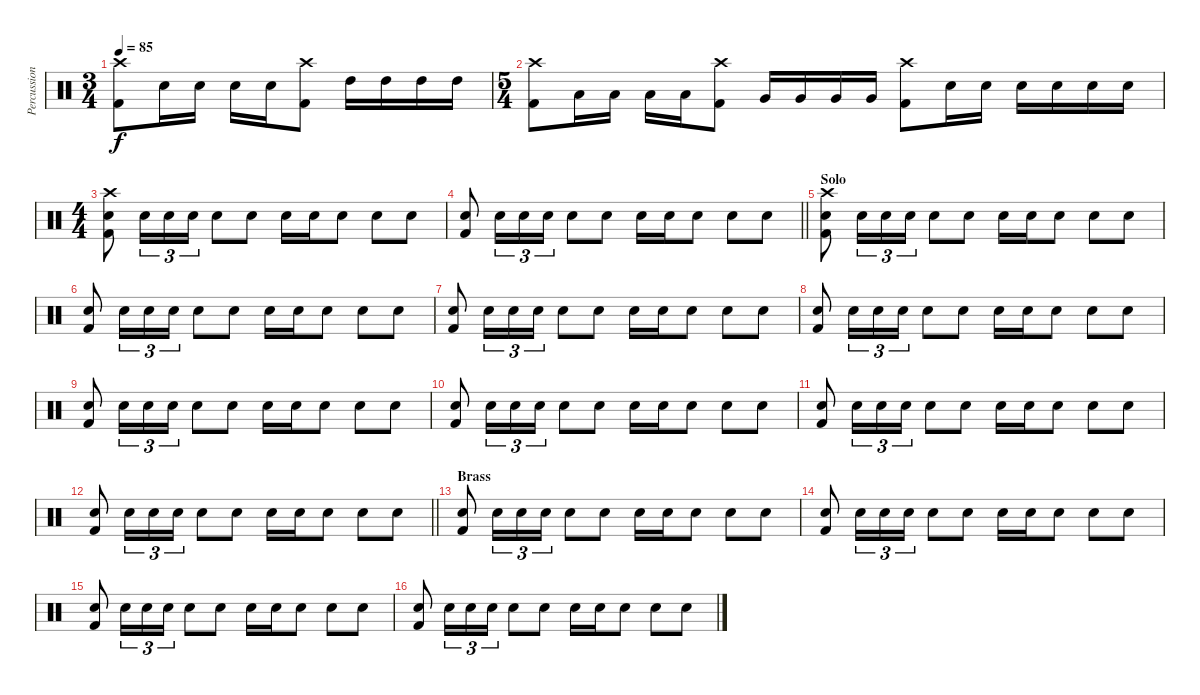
\track ("Percussion" "Percussion") {instrument percussion}
\staff {score}
\articulation defaults
\ts (3 4)
\tempo 85
\clef neutral
\ks c
("Crash high (hit)" "Kick (hit) 2").8{dy f} "Electric Snare (hit)".16 "Electric Snare (hit)".16 "Electric Snare (hit)".16 "Electric Snare (hit)".16 ("Crash high (hit)" "Kick (hit) 2").8 "High Tom (hit)".16 "High Tom (hit)".16 "High Tom (hit)".16 "High Tom (hit)".16 |
\ts (5 4)
("Crash high (hit)" "Kick (hit) 2").8 "Low Tom (hit)".16 "Low Tom (hit)".16 "Low Tom (hit)".16 "Low Tom (hit)".16 ("Crash high (hit)" "Kick (hit) 2").8 "Very Low Tom (hit)".16 "Very Low Tom (hit)".16 "Very Low Tom (hit)".16 "Very Low Tom (hit)".16 ("Crash high (hit)" "Kick (hit) 2").8 "Electric Snare (hit)".16 "Electric Snare (hit)".16 "Electric Snare (hit)".16 "Electric Snare (hit)".16 "Electric Snare (hit)".16 "Electric Snare (hit)".16 |
\ts (4 4)
("Crash high (hit)" "Electric Snare (hit)" "Kick (hit) 2").8 "Electric Snare (hit)".16{tu (3 2)} "Electric Snare (hit)".16{tu (3 2)} "Electric Snare (hit)".16{tu (3 2)} "Electric Snare (hit)".8 "Electric Snare (hit)".8 "Electric Snare (hit)".16 "Electric Snare (hit)".16 "Electric Snare (hit)".8 "Electric Snare (hit)".8 "Electric Snare (hit)".8 |
\barLineRight lightlight
("Electric Snare (hit)" "Kick (hit) 2").8 "Electric Snare (hit)".16{tu (3 2)} "Electric Snare (hit)".16{tu (3 2)} "Electric Snare (hit)".16{tu (3 2)} "Electric Snare (hit)".8 "Electric Snare (hit)".8 "Electric Snare (hit)".16 "Electric Snare (hit)".16 "Electric Snare (hit)".8 "Electric Snare (hit)".8 "Electric Snare (hit)".8 |
\section ("" "Solo")
("Crash high (hit)" "Electric Snare (hit)" "Kick (hit) 2").8 "Electric Snare (hit)".16{tu (3 2)} "Electric Snare (hit)".16{tu (3 2)} "Electric Snare (hit)".16{tu (3 2)} "Electric Snare (hit)".8 "Electric Snare (hit)".8 "Electric Snare (hit)".16 "Electric Snare (hit)".16 "Electric Snare (hit)".8 "Electric Snare (hit)".8 "Electric Snare (hit)".8 |
("Electric Snare (hit)" "Kick (hit) 2").8 "Electric Snare (hit)".16{tu (3 2)} "Electric Snare (hit)".16{tu (3 2)} "Electric Snare (hit)".16{tu (3 2)} "Electric Snare (hit)".8 "Electric Snare (hit)".8 "Electric Snare (hit)".16 "Electric Snare (hit)".16 "Electric Snare (hit)".8 "Electric Snare (hit)".8 "Electric Snare (hit)".8 |
("Electric Snare (hit)" "Kick (hit) 2").8 "Electric Snare (hit)".16{tu (3 2)} "Electric Snare (hit)".16{tu (3 2)} "Electric Snare (hit)".16{tu (3 2)} "Electric Snare (hit)".8 "Electric Snare (hit)".8 "Electric Snare (hit)".16 "Electric Snare (hit)".16 "Electric Snare (hit)".8 "Electric Snare (hit)".8 "Electric Snare (hit)".8 |
("Electric Snare (hit)" "Kick (hit) 2").8 "Electric Snare (hit)".16{tu (3 2)} "Electric Snare (hit)".16{tu (3 2)} "Electric Snare (hit)".16{tu (3 2)} "Electric Snare (hit)".8 "Electric Snare (hit)".8 "Electric Snare (hit)".16 "Electric Snare (hit)".16 "Electric Snare (hit)".8 "Electric Snare (hit)".8 "Electric Snare (hit)".8 |
("Electric Snare (hit)" "Kick (hit) 2").8 "Electric Snare (hit)".16{tu (3 2)} "Electric Snare (hit)".16{tu (3 2)} "Electric Snare (hit)".16{tu (3 2)} "Electric Snare (hit)".8 "Electric Snare (hit)".8 "Electric Snare (hit)".16 "Electric Snare (hit)".16 "Electric Snare (hit)".8 "Electric Snare (hit)".8 "Electric Snare (hit)".8 |
("Electric Snare (hit)" "Kick (hit) 2").8 "Electric Snare (hit)".16{tu (3 2)} "Electric Snare (hit)".16{tu (3 2)} "Electric Snare (hit)".16{tu (3 2)} "Electric Snare (hit)".8 "Electric Snare (hit)".8 "Electric Snare (hit)".16 "Electric Snare (hit)".16 "Electric Snare (hit)".8 "Electric Snare (hit)".8 "Electric Snare (hit)".8 |
("Electric Snare (hit)" "Kick (hit) 2").8 "Electric Snare (hit)".16{tu (3 2)} "Electric Snare (hit)".16{tu (3 2)} "Electric Snare (hit)".16{tu (3 2)} "Electric Snare (hit)".8 "Electric Snare (hit)".8 "Electric Snare (hit)".16 "Electric Snare (hit)".16 "Electric Snare (hit)".8 "Electric Snare (hit)".8 "Electric Snare (hit)".8 |
\barLineRight lightlight
("Electric Snare (hit)" "Kick (hit) 2").8 "Electric Snare (hit)".16{tu (3 2)} "Electric Snare (hit)".16{tu (3 2)} "Electric Snare (hit)".16{tu (3 2)} "Electric Snare (hit)".8 "Electric Snare (hit)".8 "Electric Snare (hit)".16 "Electric Snare (hit)".16 "Electric Snare (hit)".8 "Electric Snare (hit)".8 "Electric Snare (hit)".8 |
\section ("" "Brass")
("Electric Snare (hit)" "Kick (hit) 2").8 "Electric Snare (hit)".16{tu (3 2)} "Electric Snare (hit)".16{tu (3 2)} "Electric Snare (hit)".16{tu (3 2)} "Electric Snare (hit)".8 "Electric Snare (hit)".8 "Electric Snare (hit)".16 "Electric Snare (hit)".16 "Electric Snare (hit)".8 "Electric Snare (hit)".8 "Electric Snare (hit)".8 |
("Electric Snare (hit)" "Kick (hit) 2").8 "Electric Snare (hit)".16{tu (3 2)} "Electric Snare (hit)".16{tu (3 2)} "Electric Snare (hit)".16{tu (3 2)} "Electric Snare (hit)".8 "Electric Snare (hit)".8 "Electric Snare (hit)".16 "Electric Snare (hit)".16 "Electric Snare (hit)".8 "Electric Snare (hit)".8 "Electric Snare (hit)".8 |
("Electric Snare (hit)" "Kick (hit) 2").8 "Electric Snare (hit)".16{tu (3 2)} "Electric Snare (hit)".16{tu (3 2)} "Electric Snare (hit)".16{tu (3 2)} "Electric Snare (hit)".8 "Electric Snare (hit)".8 "Electric Snare (hit)".16 "Electric Snare (hit)".16 "Electric Snare (hit)".8 "Electric Snare (hit)".8 "Electric Snare (hit)".8 |
("Electric Snare (hit)" "Kick (hit) 2").8 "Electric Snare (hit)".16{tu (3 2)} "Electric Snare (hit)".16{tu (3 2)} "Electric Snare (hit)".16{tu (3 2)} "Electric Snare (hit)".8 "Electric Snare (hit)".8 "Electric Snare (hit)".16 "Electric Snare (hit)".16 "Electric Snare (hit)".8 "Electric Snare (hit)".8 "Electric Snare (hit)".8
